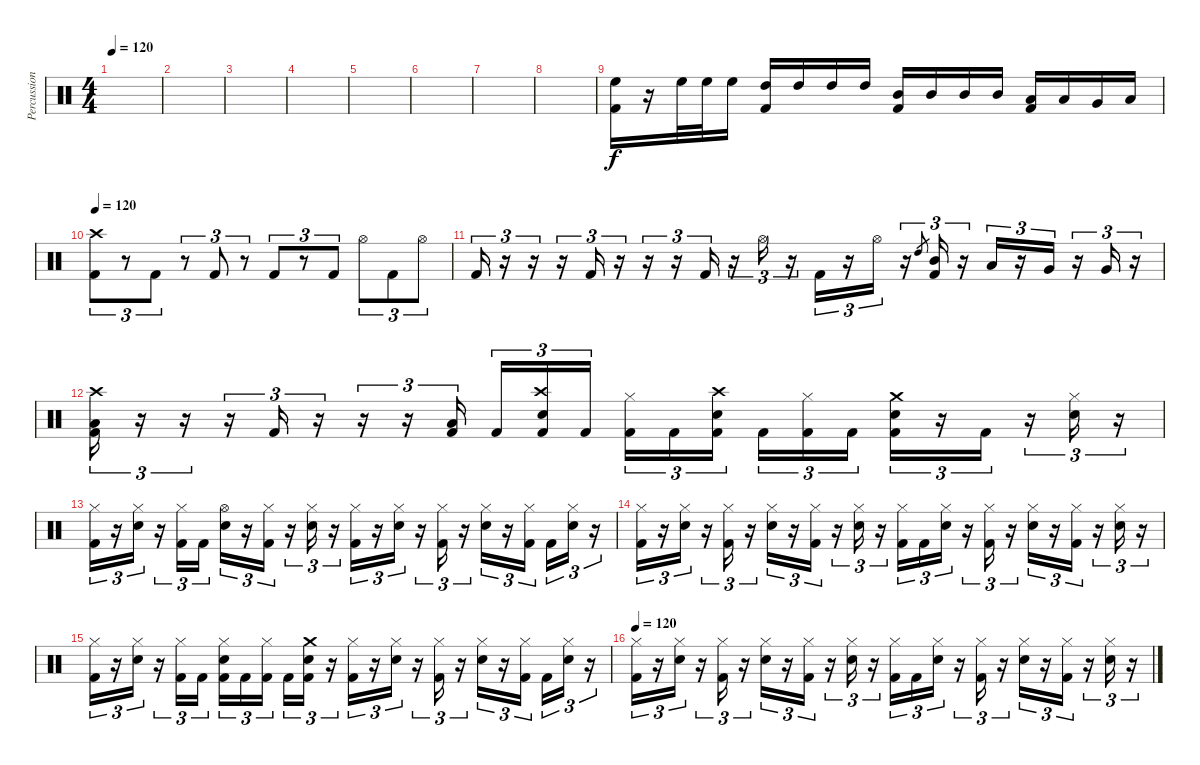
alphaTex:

\track ("Percussion" "Percussion") {instrument percussion}
\staff {score}
\articulation defaults
\ts (4 4)
\tempo 120
\clef neutral
\ks c
|
|
|
|
|
|
|
|
("High Floor Tom (hit)" "Kick (hit) 2").16 r.16 "High Floor Tom (hit)".32 "High Floor Tom (hit)".32 "High Floor Tom (hit)".16 ("High Tom (hit)" "Kick (hit) 2").16 "High Tom (hit)".16 "High Tom (hit)".16 "High Tom (hit)".16 ("Mid Tom (hit)" "Kick (hit) 2").16 "Mid Tom (hit)".16 "Mid Tom (hit)".16 "Mid Tom (hit)".16 ("Low Tom (hit)" "Kick (hit) 2").16 "Low Tom (hit)".16 "Very Low Tom (hit)".16 "Low Floor Tom (hit)".16 |
\tempo 120
("Crash high (hit)" "Kick (hit) 2").8{tu (3 2)} r.8{tu (3 2)} "Kick (hit) 2".8{tu (3 2)} r.8{tu (3 2)} "Kick (hit) 2".8{tu (3 2)} r.8{tu (3 2)} "Kick (hit) 2".8{tu (3 2)} r.8{tu (3 2)} "Kick (hit) 2".8{tu (3 2)} "Hi-Hat (open)".8{tu (3 2)} "Kick (hit) 2".8{tu (3 2)} "Hi-Hat (open)".8{tu (3 2)} |
"Kick (hit) 2".16{tu (3 2)} r.16{tu (3 2)} r.16{tu (3 2)} r.16{tu (3 2)} "Kick (hit) 2".16{tu (3 2)} r.16{tu (3 2)} r.16{tu (3 2)} r.16{tu (3 2)} "Kick (hit) 2".16{tu (3 2)} r.16{tu (3 2)} "Hi-Hat (open)".16{tu (3 2)} r.16{tu (3 2)} "Kick (hit) 2".16{tu (3 2)} r.16{tu (3 2)} "Hi-Hat (open)".16{tu (3 2)} r.16{tu (3 2)} "High Tom (hit)".8{gr} ("Mid Tom (hit)" "Kick (hit) 2").16{tu (3 2)} r.16{tu (3 2)} "Low Tom (hit)".16{tu (3 2)} r.16{tu (3 2)} "Very Low Tom (hit)".16{tu (3 2)} r.16{tu (3 2)} "Very Low Tom (hit)".16{tu (3 2)} r.16{tu (3 2)} |
("Crash high (hit)" "Low Floor Tom (hit)" "Kick (hit) 2").16{tu (3 2)} r.16{tu (3 2)} r.16{tu (3 2)} r.16{tu (3 2)} "Kick (hit) 2".16{tu (3 2)} r.16{tu (3 2)} r.16{tu (3 2)} r.16{tu (3 2)} ("Low Floor Tom (hit)" "Kick (hit) 2").16{tu (3 2) beam splitsecondary} "Kick (hit) 2".16{tu (3 2)} ("Crash high (hit)" "Snare (hit) 2" "Kick (hit) 2").16{tu (3 2)} "Kick (hit) 2".16{tu (3 2)} ("Hi-Hat (closed)" "Kick (hit) 2").16{tu (3 2)} "Kick (hit) 2".16{tu (3 2)} ("Crash high (hit)" "Snare (hit) 2" "Kick (hit) 2").16{tu (3 2) beam splitsecondary} "Kick (hit) 2".16{tu (3 2)} ("Hi-Hat (closed)" "Kick (hit) 2").16{tu (3 2)} "Kick (hit) 2".16{tu (3 2)} ("Crash medium (hit)" "Snare (hit) 2" "Kick (hit) 2").16{tu (3 2)} r.16{tu (3 2)} "Kick (hit) 2".16{tu (3 2)} r.16{tu (3 2)} ("Hi-Hat (closed)" "Snare (hit) 2").16{tu (3 2)} r.16{tu (3 2)} |
("Hi-Hat (closed)" "Kick (hit) 2").16{tu (3 2)} r.16{tu (3 2)} ("Hi-Hat (closed)" "Snare (hit) 2").16{tu (3 2)} r.16{tu (3 2)} ("Hi-Hat (closed)" "Kick (hit) 2").16{tu (3 2)} "Kick (hit) 2".16{tu (3 2)} ("Hi-Hat (open)" "Snare (hit) 2").16{tu (3 2)} r.16{tu (3 2)} ("Hi-Hat (closed)" "Kick (hit) 2").16{tu (3 2)} r.16{tu (3 2)} ("Hi-Hat (closed)" "Snare (hit) 2").16{tu (3 2)} r.16{tu (3 2)} ("Hi-Hat (closed)" "Kick (hit) 2").16{tu (3 2)} r.16{tu (3 2)} ("Hi-Hat (closed)" "Snare (hit) 2").16{tu (3 2)} r.16{tu (3 2)} ("Hi-Hat (closed)" "Kick (hit) 2").16{tu (3 2)} r.16{tu (3 2)} ("Hi-Hat (closed)" "Snare (hit) 2").16{tu (3 2)} r.16{tu (3 2)} ("Hi-Hat (closed)" "Kick (hit) 2").16{tu (3 2) beam splitsecondary} "Kick (hit) 2".16{tu (3 2)} ("Hi-Hat (closed)" "Snare (hit) 2").16{tu (3 2)} r.16{tu (3 2)} |
("Hi-Hat (closed)" "Kick (hit) 2").16{tu (3 2)} r.16{tu (3 2)} ("Hi-Hat (closed)" "Snare (hit) 2").16{tu (3 2)} r.16{tu (3 2)} ("Hi-Hat (closed)" "Kick (hit) 2").16{tu (3 2)} r.16{tu (3 2)} ("Hi-Hat (closed)" "Snare (hit) 2").16{tu (3 2)} r.16{tu (3 2)} ("Hi-Hat (closed)" "Kick (hit) 2").16{tu (3 2)} r.16{tu (3 2)} ("Hi-Hat (closed)" "Snare (hit) 2").16{tu (3 2)} r.16{tu (3 2)} ("Hi-Hat (closed)" "Kick (hit) 2").16{tu (3 2)} "Kick (hit) 2".16{tu (3 2)} ("Hi-Hat (closed)" "Snare (hit) 2").16{tu (3 2)} r.16{tu (3 2)} ("Hi-Hat (closed)" "Kick (hit) 2").16{tu (3 2)} r.16{tu (3 2)} ("Hi-Hat (closed)" "Snare (hit) 2").16{tu (3 2)} r.16{tu (3 2)} ("Hi-Hat (closed)" "Kick (hit) 2").16{tu (3 2)} r.16{tu (3 2)} ("Hi-Hat (closed)" "Snare (hit) 2").16{tu (3 2)} r.16{tu (3 2)} |
("Hi-Hat (closed)" "Kick (hit) 2").16{tu (3 2)} r.16{tu (3 2)} ("Hi-Hat (closed)" "Snare (hit) 2").16{tu (3 2)} r.16{tu (3 2)} ("Hi-Hat (closed)" "Kick (hit) 2").16{tu (3 2)} "Kick (hit) 2".16{tu (3 2)} ("Hi-Hat (closed)" "Snare (hit) 2" "Kick (hit) 2").16{tu (3 2)} "Kick (hit) 2".16{tu (3 2)} ("Hi-Hat (closed)" "Kick (hit) 2").16{tu (3 2) beam splitsecondary} "Kick (hit) 2".16{tu (3 2)} ("Crash medium (hit)" "Snare (hit) 2" "Kick (hit) 2").16{tu (3 2)} r.16{tu (3 2)} ("Hi-Hat (closed)" "Kick (hit) 2").16{tu (3 2)} r.16{tu (3 2)} ("Hi-Hat (closed)" "Snare (hit) 2").16{tu (3 2)} r.16{tu (3 2)} ("Hi-Hat (closed)" "Kick (hit) 2").16{tu (3 2)} r.16{tu (3 2)} ("Hi-Hat (closed)" "Snare (hit) 2").16{tu (3 2)} r.16{tu (3 2)} ("Hi-Hat (closed)" "Kick (hit) 2").16{tu (3 2) beam splitsecondary} "Kick (hit) 2".16{tu (3 2)} ("Hi-Hat (closed)" "Snare (hit) 2").16{tu (3 2)} r.16{tu (3 2)} |
\tempo 120
("Hi-Hat (closed)" "Kick (hit) 2").16{tu (3 2)} r.16{tu (3 2)} ("Hi-Hat (closed)" "Snare (hit) 2").16{tu (3 2)} r.16{tu (3 2)} ("Hi-Hat (closed)" "Kick (hit) 2").16{tu (3 2)} r.16{tu (3 2)} ("Hi-Hat (closed)" "Snare (hit) 2").16{tu (3 2)} r.16{tu (3 2)} ("Hi-Hat (closed)" "Kick (hit) 2").16{tu (3 2)} r.16{tu (3 2)} ("Hi-Hat (closed)" "Snare (hit) 2").16{tu (3 2)} r.16{tu (3 2)} ("Hi-Hat (closed)" "Kick (hit) 2").16{tu (3 2)} "Kick (hit) 2".16{tu (3 2)} ("Hi-Hat (closed)" "Snare (hit) 2").16{tu (3 2)} r.16{tu (3 2)} ("Hi-Hat (closed)" "Kick (hit) 2").16{tu (3 2)} r.16{tu (3 2)} ("Hi-Hat (closed)" "Snare (hit) 2").16{tu (3 2)} r.16{tu (3 2)} ("Hi-Hat (closed)" "Kick (hit) 2").16{tu (3 2)} r.16{tu (3 2)} ("Hi-Hat (closed)" "Snare (hit) 2").16{tu (3 2)} r.16{tu (3 2)}
